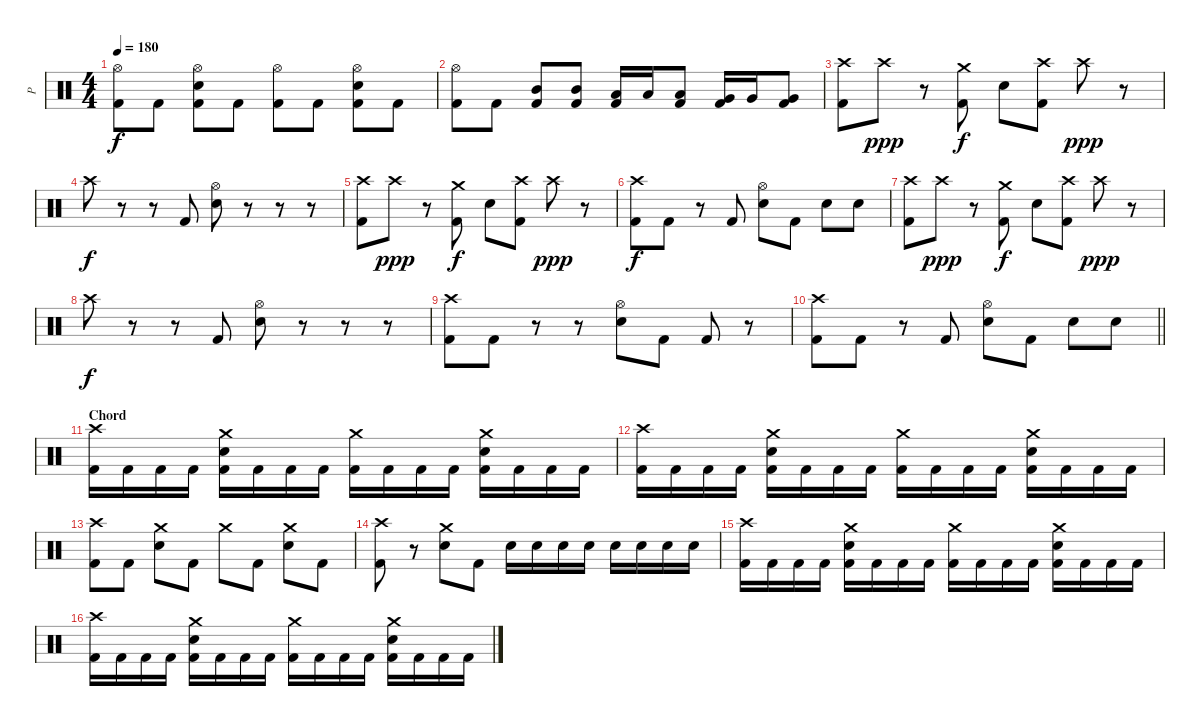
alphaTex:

\track ("P" "P") {instrument percussion}
\staff {score}
\articulation defaults
\ts (4 4)
\tempo 180
\clef neutral
\ks c
("Hi-Hat (open)" "Kick (hit) 2").8{dy f} "Kick (hit) 2".8 ("Hi-Hat (open)" "Electric Snare (hit)" "Kick (hit) 2").8 "Kick (hit) 2".8 ("Hi-Hat (open)" "Kick (hit) 2").8 "Kick (hit) 2".8 ("Hi-Hat (open)" "Electric Snare (hit)" "Kick (hit) 2").8 "Kick (hit) 2".8 |
("Hi-Hat (open)" "Kick (hit) 2").8 "Kick (hit) 2".8 ("Mid Tom (hit)" "Kick (hit) 2").8 ("Mid Tom (hit)" "Kick (hit) 2").8 ("Low Tom (hit)" "Kick (hit) 2").16 "Low Tom (hit)".16 ("Low Tom (hit)" "Kick (hit) 2").8 ("Very Low Tom (hit)" "Kick (hit) 2").16 "Very Low Tom (hit)".16 ("Very Low Tom (hit)" "Kick (hit) 2").8 |
("Crash high (hit)" "Kick (hit) 2").8 "Crash high (hit)".8{dy ppp} r.8 ("Crash medium (hit)" "Kick (hit) 2").8{dy f} "Electric Snare (hit)".8 ("Crash high (hit)" "Kick (hit) 2").8 "Crash high (hit)".8{dy ppp} r.8 |
"Crash high (hit)".8{dy f} r.8 r.8 "Kick (hit) 2".8 ("Hi-Hat (open)" "Electric Snare (hit)").8 r.8 r.8 r.8 |
("Crash high (hit)" "Kick (hit) 2").8 "Crash high (hit)".8{dy ppp} r.8 ("Crash medium (hit)" "Kick (hit) 2").8{dy f} "Electric Snare (hit)".8 ("Crash high (hit)" "Kick (hit) 2").8 "Crash high (hit)".8{dy ppp} r.8 |
("Crash high (hit)" "Kick (hit) 2").8{dy f} "Kick (hit) 2".8 r.8 "Kick (hit) 2".8 ("Hi-Hat (open)" "Electric Snare (hit)").8 "Kick (hit) 2".8 "Electric Snare (hit)".8 "Electric Snare (hit)".8 |
("Crash high (hit)" "Kick (hit) 2").8 "Crash high (hit)".8{dy ppp} r.8 ("Crash medium (hit)" "Kick (hit) 2").8{dy f} "Electric Snare (hit)".8 ("Crash high (hit)" "Kick (hit) 2").8 "Crash high (hit)".8{dy ppp} r.8 |
"Crash high (hit)".8{dy f} r.8 r.8 "Kick (hit) 2".8 ("Hi-Hat (open)" "Electric Snare (hit)").8 r.8 r.8 r.8 |
("Crash high (hit)" "Kick (hit) 2").8 "Kick (hit) 2".8 r.8 r.8 ("Hi-Hat (open)" "Electric Snare (hit)").8 "Kick (hit) 2".8 "Kick (hit) 2".8 r.8 |
\barLineRight lightlight
("Crash high (hit)" "Kick (hit) 2").8 "Kick (hit) 2".8 r.8 "Kick (hit) 2".8 ("Hi-Hat (open)" "Electric Snare (hit)").8 "Kick (hit) 2".8 "Electric Snare (hit)".8 "Electric Snare (hit)".8 |
\section ("" "Chord")
("Crash high (hit)" "Kick (hit) 2").16 "Kick (hit) 2".16 "Kick (hit) 2".16 "Kick (hit) 2".16 ("Crash medium (hit)" "Electric Snare (hit)" "Kick (hit) 2").16 "Kick (hit) 2".16 "Kick (hit) 2".16 "Kick (hit) 2".16 ("Crash medium (hit)" "Kick (hit) 2").16 "Kick (hit) 2".16 "Kick (hit) 2".16 "Kick (hit) 2".16 ("Crash medium (hit)" "Electric Snare (hit)" "Kick (hit) 2").16 "Kick (hit) 2".16 "Kick (hit) 2".16 "Kick (hit) 2".16 |
("Crash high (hit)" "Kick (hit) 2").16 "Kick (hit) 2".16 "Kick (hit) 2".16 "Kick (hit) 2".16 ("Crash medium (hit)" "Electric Snare (hit)" "Kick (hit) 2").16 "Kick (hit) 2".16 "Kick (hit) 2".16 "Kick (hit) 2".16 ("Crash medium (hit)" "Kick (hit) 2").16 "Kick (hit) 2".16 "Kick (hit) 2".16 "Kick (hit) 2".16 ("Crash medium (hit)" "Electric Snare (hit)" "Kick (hit) 2").16 "Kick (hit) 2".16 "Kick (hit) 2".16 "Kick (hit) 2".16 |
("Crash high (hit)" "Kick (hit) 2").8 "Kick (hit) 2".8 ("Crash medium (hit)" "Electric Snare (hit)").8 "Kick (hit) 2".8 "Crash medium (hit)".8 "Kick (hit) 2".8 ("Crash medium (hit)" "Electric Snare (hit)").8 "Kick (hit) 2".8 |
("Crash high (hit)" "Kick (hit) 2").8 r.8 ("Crash medium (hit)" "Electric Snare (hit)").8 "Kick (hit) 2".8 "Electric Snare (hit)".16 "Electric Snare (hit)".16 "Electric Snare (hit)".16 "Electric Snare (hit)".16 "Electric Snare (hit)".16 "Electric Snare (hit)".16 "Electric Snare (hit)".16 "Electric Snare (hit)".16 |
("Crash high (hit)" "Kick (hit) 2").16 "Kick (hit) 2".16 "Kick (hit) 2".16 "Kick (hit) 2".16 ("Crash medium (hit)" "Electric Snare (hit)" "Kick (hit) 2").16 "Kick (hit) 2".16 "Kick (hit) 2".16 "Kick (hit) 2".16 ("Crash medium (hit)" "Kick (hit) 2").16 "Kick (hit) 2".16 "Kick (hit) 2".16 "Kick (hit) 2".16 ("Crash medium (hit)" "Electric Snare (hit)" "Kick (hit) 2").16 "Kick (hit) 2".16 "Kick (hit) 2".16 "Kick (hit) 2".16 |
("Crash high (hit)" "Kick (hit) 2").16 "Kick (hit) 2".16 "Kick (hit) 2".16 "Kick (hit) 2".16 ("Crash medium (hit)" "Electric Snare (hit)" "Kick (hit) 2").16 "Kick (hit) 2".16 "Kick (hit) 2".16 "Kick (hit) 2".16 ("Crash medium (hit)" "Kick (hit) 2").16 "Kick (hit) 2".16 "Kick (hit) 2".16 "Kick (hit) 2".16 ("Crash medium (hit)" "Electric Snare (hit)" "Kick (hit) 2").16 "Kick (hit) 2".16 "Kick (hit) 2".16 "Kick (hit) 2".16
